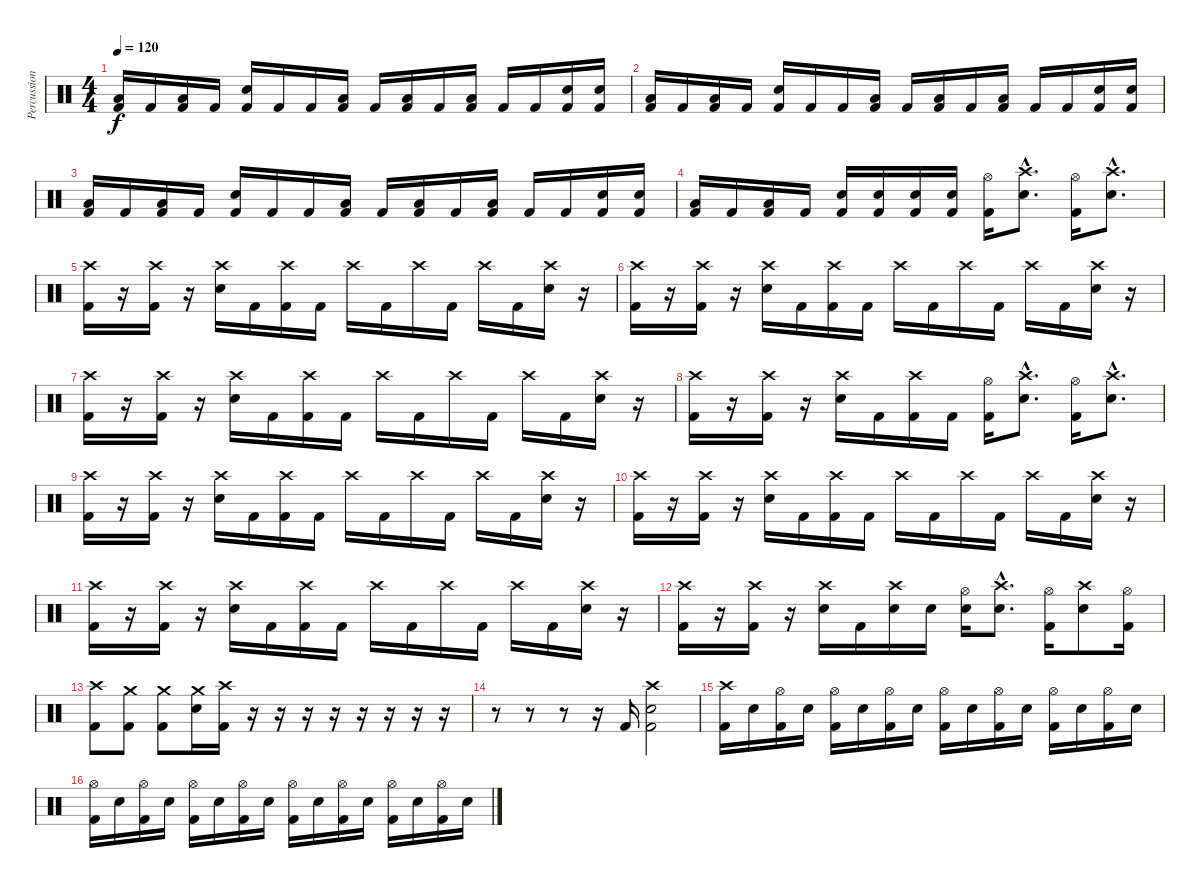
\track ("Percussion" "Percussion") {instrument percussion}
\staff {score}
\articulation defaults
\ts (4 4)
\tempo 120
\clef neutral
\ks c
("Low Tom (hit)" "Kick (hit) 2").16{dy f} "Kick (hit) 2".16 ("Low Tom (hit)" "Kick (hit) 2").16 "Kick (hit) 2".16 ("Electric Snare (hit)" "Kick (hit) 2").16 "Kick (hit) 2".16 "Kick (hit) 2".16 ("Low Tom (hit)" "Kick (hit) 2").16 "Kick (hit) 2".16 ("Low Tom (hit)" "Kick (hit) 2").16 "Kick (hit) 2".16 ("Low Tom (hit)" "Kick (hit) 2").16 "Kick (hit) 2".16 "Kick (hit) 2".16 ("Electric Snare (hit)" "Kick (hit) 2").16 ("Electric Snare (hit)" "Kick (hit) 2").16 |
("Low Tom (hit)" "Kick (hit) 2").16 "Kick (hit) 2".16 ("Low Tom (hit)" "Kick (hit) 2").16 "Kick (hit) 2".16 ("Electric Snare (hit)" "Kick (hit) 2").16 "Kick (hit) 2".16 "Kick (hit) 2".16 ("Low Tom (hit)" "Kick (hit) 2").16 "Kick (hit) 2".16 ("Low Tom (hit)" "Kick (hit) 2").16 "Kick (hit) 2".16 ("Low Tom (hit)" "Kick (hit) 2").16 "Kick (hit) 2".16 "Kick (hit) 2".16 ("Electric Snare (hit)" "Kick (hit) 2").16 ("Electric Snare (hit)" "Kick (hit) 2").16 |
("Low Tom (hit)" "Kick (hit) 2").16 "Kick (hit) 2".16 ("Low Tom (hit)" "Kick (hit) 2").16 "Kick (hit) 2".16 ("Electric Snare (hit)" "Kick (hit) 2").16 "Kick (hit) 2".16 "Kick (hit) 2".16 ("Low Tom (hit)" "Kick (hit) 2").16 "Kick (hit) 2".16 ("Low Tom (hit)" "Kick (hit) 2").16 "Kick (hit) 2".16 ("Low Tom (hit)" "Kick (hit) 2").16 "Kick (hit) 2".16 "Kick (hit) 2".16 ("Electric Snare (hit)" "Kick (hit) 2").16 ("Electric Snare (hit)" "Kick (hit) 2").16 |
("Low Tom (hit)" "Kick (hit) 2").16 "Kick (hit) 2".16 ("Low Tom (hit)" "Kick (hit) 2").16 "Kick (hit) 2".16 ("Electric Snare (hit)" "Kick (hit) 2").16 ("Electric Snare (hit)" "Kick (hit) 2").16 ("Electric Snare (hit)" "Kick (hit) 2").16 ("Electric Snare (hit)" "Kick (hit) 2").16 ("Hi-Hat (open)" "Kick (hit) 2").16 ("Crash high (hit)"{hac} "Electric Snare (hit)"{hac}).8{d} ("Hi-Hat (open)" "Kick (hit) 2").16 ("Crash high (hit)"{hac} "Electric Snare (hit)"{hac}).8{d} |
("Crash high (hit)" "Kick (hit) 2").16 r.16 ("Crash high (hit)" "Kick (hit) 2").16 r.16 ("Crash high (hit)" "Electric Snare (hit)").16 "Kick (hit) 2".16 ("Crash high (hit)" "Kick (hit) 2").16 "Kick (hit) 2".16 "Crash high (hit)".16 "Kick (hit) 2".16 "Crash high (hit)".16 "Kick (hit) 2".16 "Crash high (hit)".16 "Kick (hit) 2".16 ("Crash high (hit)" "Electric Snare (hit)").16 r.16 |
("Crash high (hit)" "Kick (hit) 2").16 r.16 ("Crash high (hit)" "Kick (hit) 2").16 r.16 ("Crash high (hit)" "Electric Snare (hit)").16 "Kick (hit) 2".16 ("Crash high (hit)" "Kick (hit) 2").16 "Kick (hit) 2".16 "Crash high (hit)".16 "Kick (hit) 2".16 "Crash high (hit)".16 "Kick (hit) 2".16 "Crash high (hit)".16 "Kick (hit) 2".16 ("Crash high (hit)" "Electric Snare (hit)").16 r.16 |
("Crash high (hit)" "Kick (hit) 2").16 r.16 ("Crash high (hit)" "Kick (hit) 2").16 r.16 ("Crash high (hit)" "Electric Snare (hit)").16 "Kick (hit) 2".16 ("Crash high (hit)" "Kick (hit) 2").16 "Kick (hit) 2".16 "Crash high (hit)".16 "Kick (hit) 2".16 "Crash high (hit)".16 "Kick (hit) 2".16 "Crash high (hit)".16 "Kick (hit) 2".16 ("Crash high (hit)" "Electric Snare (hit)").16 r.16 |
("Crash high (hit)" "Kick (hit) 2").16 r.16 ("Crash high (hit)" "Kick (hit) 2").16 r.16 ("Crash high (hit)" "Electric Snare (hit)").16 "Kick (hit) 2".16 ("Crash high (hit)" "Kick (hit) 2").16 "Kick (hit) 2".16 ("Hi-Hat (open)" "Kick (hit) 2").16 ("Crash high (hit)"{hac} "Electric Snare (hit)"{hac}).8{d} ("Hi-Hat (open)" "Kick (hit) 2").16 ("Crash high (hit)"{hac} "Electric Snare (hit)"{hac}).8{d} |
("Crash high (hit)" "Kick (hit) 2").16 r.16 ("Crash high (hit)" "Kick (hit) 2").16 r.16 ("Crash high (hit)" "Electric Snare (hit)").16 "Kick (hit) 2".16 ("Crash high (hit)" "Kick (hit) 2").16 "Kick (hit) 2".16 "Crash high (hit)".16 "Kick (hit) 2".16 "Crash high (hit)".16 "Kick (hit) 2".16 "Crash high (hit)".16 "Kick (hit) 2".16 ("Crash high (hit)" "Electric Snare (hit)").16 r.16 |
("Crash high (hit)" "Kick (hit) 2").16 r.16 ("Crash high (hit)" "Kick (hit) 2").16 r.16 ("Crash high (hit)" "Electric Snare (hit)").16 "Kick (hit) 2".16 ("Crash high (hit)" "Kick (hit) 2").16 "Kick (hit) 2".16 "Crash high (hit)".16 "Kick (hit) 2".16 "Crash high (hit)".16 "Kick (hit) 2".16 "Crash high (hit)".16 "Kick (hit) 2".16 ("Crash high (hit)" "Electric Snare (hit)").16 r.16 |
("Crash high (hit)" "Kick (hit) 2").16 r.16 ("Crash high (hit)" "Kick (hit) 2").16 r.16 ("Crash high (hit)" "Electric Snare (hit)").16 "Kick (hit) 2".16 ("Crash high (hit)" "Kick (hit) 2").16 "Kick (hit) 2".16 "Crash high (hit)".16 "Kick (hit) 2".16 "Crash high (hit)".16 "Kick (hit) 2".16 "Crash high (hit)".16 "Kick (hit) 2".16 ("Crash high (hit)" "Electric Snare (hit)").16 r.16 |
("Crash high (hit)" "Kick (hit) 2").16 r.16 ("Crash high (hit)" "Kick (hit) 2").16 r.16 ("Crash high (hit)" "Electric Snare (hit)").16 "Kick (hit) 2".16 ("Crash high (hit)" "Electric Snare (hit)").16 "Electric Snare (hit)".16 ("Hi-Hat (open)" "Electric Snare (hit)").16 ("Crash high (hit)"{hac} "Electric Snare (hit)"{hac}).8{d} ("Hi-Hat (open)" "Kick (hit) 2").16 ("Crash high (hit)" "Electric Snare (hit)").8 ("Hi-Hat (open)" "Kick (hit) 2").16 |
("Crash high (hit)" "Kick (hit) 2").8 ("Crash medium (hit)" "Kick (hit) 2").8 ("Crash medium (hit)" "Kick (hit) 2").8 ("Crash medium (hit)" "Electric Snare (hit)").16 ("Crash high (hit)" "Kick (hit) 2").16 r.16 r.16 r.16 r.16 r.16 r.16 r.16 r.16 |
r.8 r.8 r.8 r.16 "Kick (hit) 2".16 ("Crash high (hit)" "Electric Snare (hit)" "Kick (hit) 2").2 |
("Crash high (hit)" "Kick (hit) 2").16 "Electric Snare (hit)".16 ("Hi-Hat (open)" "Kick (hit) 2").16 "Electric Snare (hit)".16 ("Hi-Hat (open)" "Kick (hit) 2").16 "Electric Snare (hit)".16 ("Hi-Hat (open)" "Kick (hit) 2").16 "Electric Snare (hit)".16 ("Hi-Hat (open)" "Kick (hit) 2").16 "Electric Snare (hit)".16 ("Hi-Hat (open)" "Kick (hit) 2").16 "Electric Snare (hit)".16 ("Hi-Hat (open)" "Kick (hit) 2").16 "Electric Snare (hit)".16 ("Hi-Hat (open)" "Kick (hit) 2").16 "Electric Snare (hit)".16 |
("Hi-Hat (open)" "Kick (hit) 2").16 "Electric Snare (hit)".16 ("Hi-Hat (open)" "Kick (hit) 2").16 "Electric Snare (hit)".16 ("Hi-Hat (open)" "Kick (hit) 2").16 "Electric Snare (hit)".16 ("Hi-Hat (open)" "Kick (hit) 2").16 "Electric Snare (hit)".16 ("Hi-Hat (open)" "Kick (hit) 2").16 "Electric Snare (hit)".16 ("Hi-Hat (open)" "Kick (hit) 2").16 "Electric Snare (hit)".16 ("Hi-Hat (open)" "Kick (hit) 2").16 "Electric Snare (hit)".16 ("Hi-Hat (open)" "Kick (hit) 2").16 "Electric Snare (hit)".16
